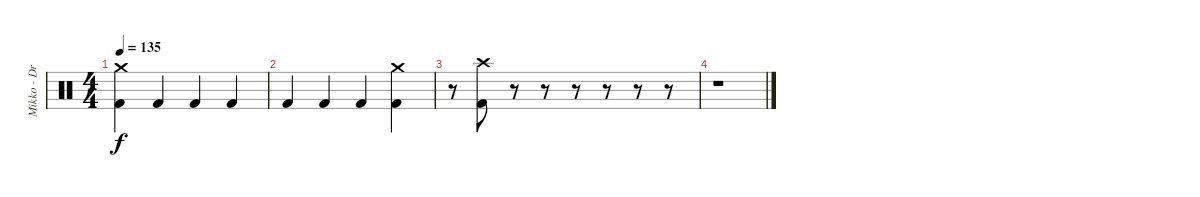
\track ("Mikko - Drums" "Mikko - Dr") {instrument percussion}
\staff {score}
\articulation defaults
\ts (4 4)
\tempo 135
\clef neutral
\ks c
("Crash medium (hit)" "Kick (hit) 2").4{dy f} "Kick (hit) 2".4 "Kick (hit) 2".4 "Kick (hit) 2".4 |
"Kick (hit) 2".4 "Kick (hit) 2".4 "Kick (hit) 2".4 ("Crash medium (hit)" "Kick (hit) 2").4 |
r.8 ("Crash high (hit)" "Kick (hit) 2").8 r.8 r.8 r.8 r.8 r.8 r.8 |
r.1
